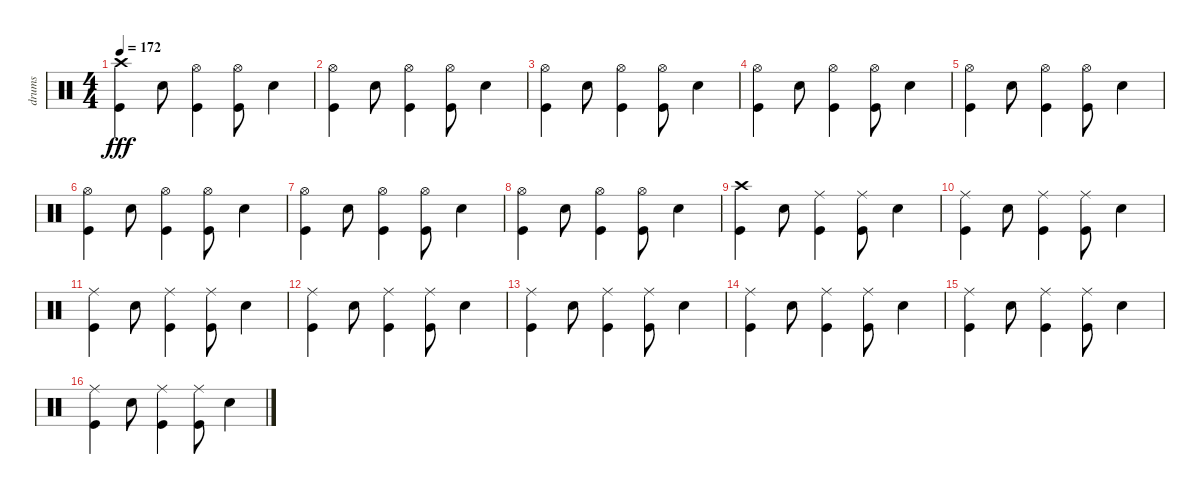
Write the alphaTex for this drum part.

\track ("drums" "drums") {instrument percussion}
\staff {score}
\articulation defaults
\ts (4 4)
\tempo 172
\clef neutral
\ks c
("Crash high (hit)" "Kick (hit)").4{dy fff} "Electric Snare (hit)".8 ("Hi-Hat (open)" "Kick (hit)").4 ("Hi-Hat (open)" "Kick (hit)").8 "Electric Snare (hit)".4 |
("Hi-Hat (open)" "Kick (hit)").4 "Electric Snare (hit)".8 ("Hi-Hat (open)" "Kick (hit)").4 ("Hi-Hat (open)" "Kick (hit)").8 "Electric Snare (hit)".4 |
("Hi-Hat (open)" "Kick (hit)").4 "Electric Snare (hit)".8 ("Hi-Hat (open)" "Kick (hit)").4 ("Hi-Hat (open)" "Kick (hit)").8 "Electric Snare (hit)".4 |
("Hi-Hat (open)" "Kick (hit)").4 "Electric Snare (hit)".8 ("Hi-Hat (open)" "Kick (hit)").4 ("Hi-Hat (open)" "Kick (hit)").8 "Electric Snare (hit)".4 |
("Hi-Hat (open)" "Kick (hit)").4 "Electric Snare (hit)".8 ("Hi-Hat (open)" "Kick (hit)").4 ("Hi-Hat (open)" "Kick (hit)").8 "Electric Snare (hit)".4 |
("Hi-Hat (open)" "Kick (hit)").4 "Electric Snare (hit)".8 ("Hi-Hat (open)" "Kick (hit)").4 ("Hi-Hat (open)" "Kick (hit)").8 "Electric Snare (hit)".4 |
("Hi-Hat (open)" "Kick (hit)").4 "Electric Snare (hit)".8 ("Hi-Hat (open)" "Kick (hit)").4 ("Hi-Hat (open)" "Kick (hit)").8 "Electric Snare (hit)".4 |
("Hi-Hat (open)" "Kick (hit)").4 "Electric Snare (hit)".8 ("Hi-Hat (open)" "Kick (hit)").4 ("Hi-Hat (open)" "Kick (hit)").8 "Electric Snare (hit)".4 |
("Crash high (hit)" "Kick (hit)").4 "Electric Snare (hit)".8 ("Ride (middle)" "Kick (hit)").4 ("Ride (middle)" "Kick (hit)").8 "Electric Snare (hit)".4 |
("Ride (middle)" "Kick (hit)").4 "Electric Snare (hit)".8 ("Ride (middle)" "Kick (hit)").4 ("Ride (middle)" "Kick (hit)").8 "Electric Snare (hit)".4 |
("Ride (middle)" "Kick (hit)").4 "Electric Snare (hit)".8 ("Ride (middle)" "Kick (hit)").4 ("Ride (middle)" "Kick (hit)").8 "Electric Snare (hit)".4 |
("Ride (middle)" "Kick (hit)").4 "Electric Snare (hit)".8 ("Ride (middle)" "Kick (hit)").4 ("Ride (middle)" "Kick (hit)").8 "Electric Snare (hit)".4 |
("Ride (middle)" "Kick (hit)").4 "Electric Snare (hit)".8 ("Ride (middle)" "Kick (hit)").4 ("Ride (middle)" "Kick (hit)").8 "Electric Snare (hit)".4 |
("Ride (middle)" "Kick (hit)").4 "Electric Snare (hit)".8 ("Ride (middle)" "Kick (hit)").4 ("Ride (middle)" "Kick (hit)").8 "Electric Snare (hit)".4 |
("Ride (middle)" "Kick (hit)").4 "Electric Snare (hit)".8 ("Ride (middle)" "Kick (hit)").4 ("Ride (middle)" "Kick (hit)").8 "Electric Snare (hit)".4 |
("Ride (middle)" "Kick (hit)").4 "Electric Snare (hit)".8 ("Ride (middle)" "Kick (hit)").4 ("Ride (middle)" "Kick (hit)").8 "Electric Snare (hit)".4
